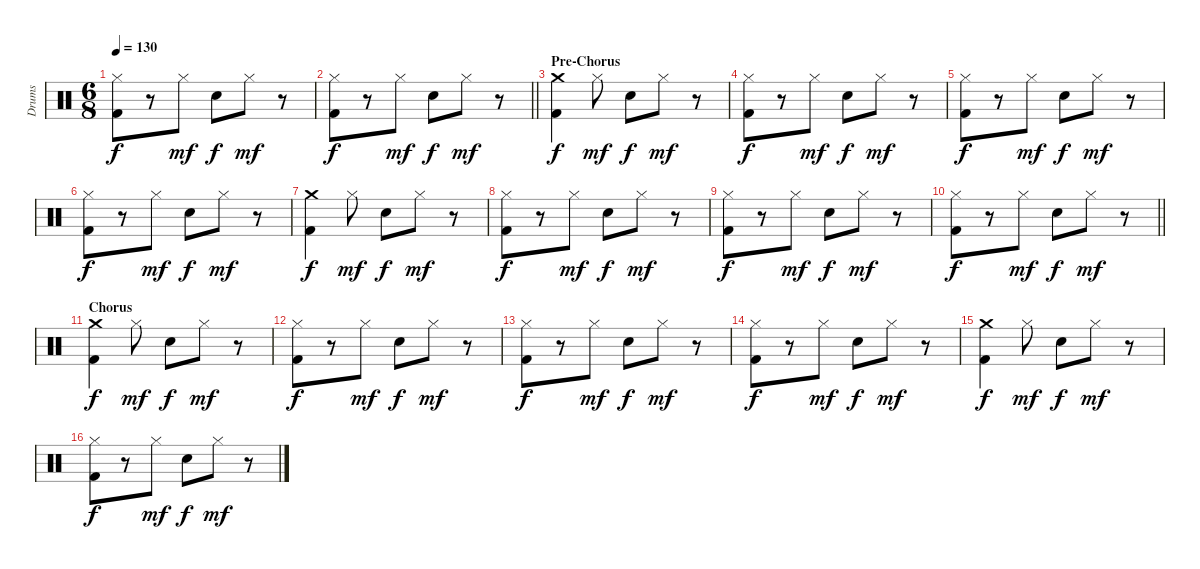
\track ("Drums" "Drums") {instrument percussion}
\staff {score}
\articulation defaults
\ts (6 8)
\tempo 130
\clef neutral
\ks c
("Hi-Hat (closed)" "Kick (hit) 2").8{dy f} r.8 "Hi-Hat (closed)".8{dy mf} "Snare (hit) 2".8{dy f} "Hi-Hat (closed)".8{dy mf} r.8 |
\barLineRight lightlight
("Hi-Hat (closed)" "Kick (hit) 2").8{dy f} r.8 "Hi-Hat (closed)".8{dy mf} "Snare (hit) 2".8{dy f} "Hi-Hat (closed)".8{dy mf} r.8 |
\section ("" "Pre-Chorus")
("Crash medium (hit)" "Kick (hit) 2").4{dy f} "Hi-Hat (closed)".8{dy mf} "Snare (hit) 2".8{dy f} "Hi-Hat (closed)".8{dy mf} r.8 |
("Hi-Hat (closed)" "Kick (hit) 2").8{dy f} r.8 "Hi-Hat (closed)".8{dy mf} "Snare (hit) 2".8{dy f} "Hi-Hat (closed)".8{dy mf} r.8 |
("Hi-Hat (closed)" "Kick (hit) 2").8{dy f} r.8 "Hi-Hat (closed)".8{dy mf} "Snare (hit) 2".8{dy f} "Hi-Hat (closed)".8{dy mf} r.8 |
("Hi-Hat (closed)" "Kick (hit) 2").8{dy f} r.8 "Hi-Hat (closed)".8{dy mf} "Snare (hit) 2".8{dy f} "Hi-Hat (closed)".8{dy mf} r.8 |
("Crash medium (hit)" "Kick (hit) 2").4{dy f} "Hi-Hat (closed)".8{dy mf} "Snare (hit) 2".8{dy f} "Hi-Hat (closed)".8{dy mf} r.8 |
("Hi-Hat (closed)" "Kick (hit) 2").8{dy f} r.8 "Hi-Hat (closed)".8{dy mf} "Snare (hit) 2".8{dy f} "Hi-Hat (closed)".8{dy mf} r.8 |
("Hi-Hat (closed)" "Kick (hit) 2").8{dy f} r.8 "Hi-Hat (closed)".8{dy mf} "Snare (hit) 2".8{dy f} "Hi-Hat (closed)".8{dy mf} r.8 |
\barLineRight lightlight
("Hi-Hat (closed)" "Kick (hit) 2").8{dy f} r.8 "Hi-Hat (closed)".8{dy mf} "Snare (hit) 2".8{dy f} "Hi-Hat (closed)".8{dy mf} r.8 |
\section ("" "Chorus")
("Crash medium (hit)" "Kick (hit) 2").4{dy f} "Hi-Hat (closed)".8{dy mf} "Snare (hit) 2".8{dy f} "Hi-Hat (closed)".8{dy mf} r.8 |
("Hi-Hat (closed)" "Kick (hit) 2").8{dy f} r.8 "Hi-Hat (closed)".8{dy mf} "Snare (hit) 2".8{dy f} "Hi-Hat (closed)".8{dy mf} r.8 |
("Hi-Hat (closed)" "Kick (hit) 2").8{dy f} r.8 "Hi-Hat (closed)".8{dy mf} "Snare (hit) 2".8{dy f} "Hi-Hat (closed)".8{dy mf} r.8 |
("Hi-Hat (closed)" "Kick (hit) 2").8{dy f} r.8 "Hi-Hat (closed)".8{dy mf} "Snare (hit) 2".8{dy f} "Hi-Hat (closed)".8{dy mf} r.8 |
("Crash medium (hit)" "Kick (hit) 2").4{dy f} "Hi-Hat (closed)".8{dy mf} "Snare (hit) 2".8{dy f} "Hi-Hat (closed)".8{dy mf} r.8 |
("Hi-Hat (closed)" "Kick (hit) 2").8{dy f} r.8 "Hi-Hat (closed)".8{dy mf} "Snare (hit) 2".8{dy f} "Hi-Hat (closed)".8{dy mf} r.8
